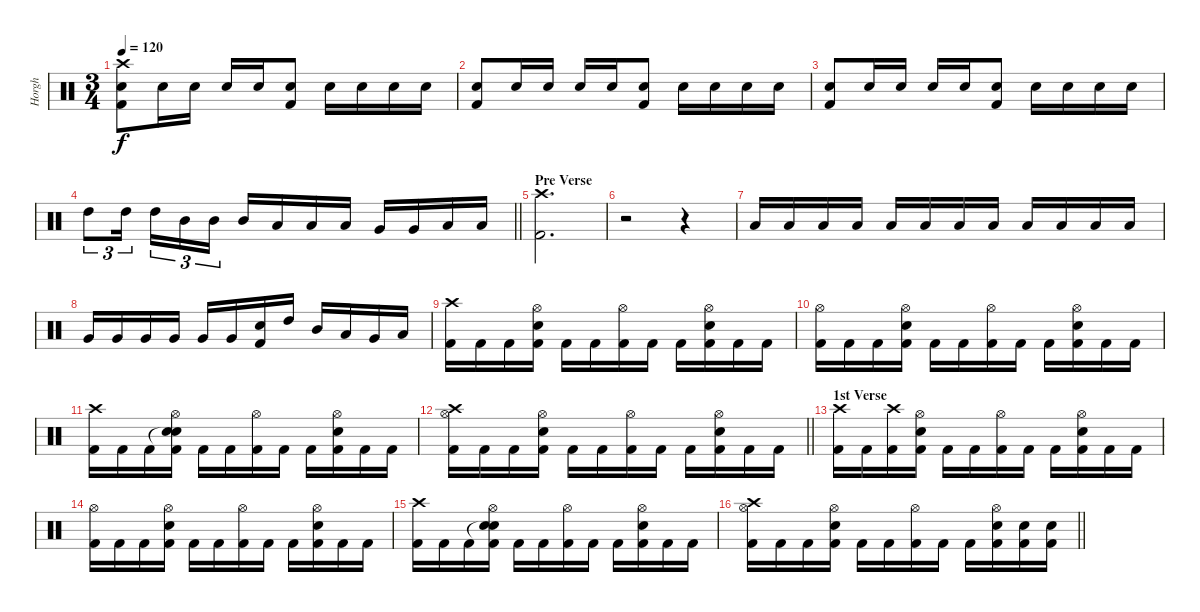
\track ("Horgh" "Horgh") {instrument percussion}
\staff {score}
\articulation defaults
\ts (3 4)
\tempo 120
\clef neutral
\ks c
("Crash high (hit)" "Snare (hit) 2" "Kick (hit) 2").8{dy f} "Snare (hit) 2".16 "Snare (hit) 2".16 "Snare (hit) 2".16 "Snare (hit) 2".16 ("Snare (hit) 2" "Kick (hit) 2").8 "Snare (hit) 2".16 "Snare (hit) 2".16 "Snare (hit) 2".16 "Snare (hit) 2".16 |
("Snare (hit) 2" "Kick (hit) 2").8 "Snare (hit) 2".16 "Snare (hit) 2".16 "Snare (hit) 2".16 "Snare (hit) 2".16 ("Snare (hit) 2" "Kick (hit) 2").8 "Snare (hit) 2".16 "Snare (hit) 2".16 "Snare (hit) 2".16 "Snare (hit) 2".16 |
("Snare (hit) 2" "Kick (hit) 2").8 "Snare (hit) 2".16 "Snare (hit) 2".16 "Snare (hit) 2".16 "Snare (hit) 2".16 ("Snare (hit) 2" "Kick (hit) 2").8 "Snare (hit) 2".16 "Snare (hit) 2".16 "Snare (hit) 2".16 "Snare (hit) 2".16 |
\barLineRight lightlight "High Tom (hit)".8{tu (3 2)} "High Tom (hit)".16{tu (3 2) beam splitsecondary} "High Tom (hit)".16{tu (3 2)} "Mid Tom (hit)".16{tu (3 2)} "Mid Tom (hit)".16{tu (3 2)} "Mid Tom (hit)".16 "Low Tom (hit)".16 "Low Tom (hit)".16 "Low Tom (hit)".16 "Very Low Tom (hit)".16 "Very Low Tom (hit)".16 "Low Floor Tom (hit)".16 "Low Floor Tom (hit)".16
|
\section ("" "Pre Verse")
("Crash high (hit)" "Kick (hit) 2").2{d} |
r.2 r.4 |
"Low Tom (hit)".16 "Low Tom (hit)".16 "Low Tom (hit)".16 "Low Tom (hit)".16 "Low Tom (hit)".16 "Low Tom (hit)".16 "Low Tom (hit)".16 "Low Tom (hit)".16 "Low Tom (hit)".16 "Low Tom (hit)".16 "Low Tom (hit)".16 "Low Tom (hit)".16 |
"Very Low Tom (hit)".16 "Very Low Tom (hit)".16 "Very Low Tom (hit)".16 "Very Low Tom (hit)".16 "Very Low Tom (hit)".16 "Very Low Tom (hit)".16 ("Snare (hit) 2" "Kick (hit) 2").16 "High Tom (hit)".16 "Mid Tom (hit)".16 "Low Tom (hit)".16 "Very Low Tom (hit)".16 "Low Floor Tom (hit)".16 |
("Crash high (hit)" "Kick (hit) 2").16 "Kick (hit) 2".16 "Kick (hit) 2".16 ("Snare (hit) 2" "Hi-Hat (open)" "Kick (hit) 2").16 "Kick (hit) 2".16 "Kick (hit) 2".16 ("Hi-Hat (open)" "Kick (hit) 2").16 "Kick (hit) 2".16 "Kick (hit) 2".16 ("Snare (hit) 2" "Hi-Hat (open)" "Kick (hit) 2").16 "Kick (hit) 2".16 "Kick (hit) 2".16 |
("Hi-Hat (open)" "Kick (hit) 2").16 "Kick (hit) 2".16 "Kick (hit) 2".16 ("Snare (hit) 2" "Hi-Hat (open)" "Kick (hit) 2").16 "Kick (hit) 2".16 "Kick (hit) 2".16 ("Hi-Hat (open)" "Kick (hit) 2").16 "Kick (hit) 2".16 "Kick (hit) 2".16 ("Snare (hit) 2" "Hi-Hat (open)" "Kick (hit) 2").16 "Kick (hit) 2".16 "Kick (hit) 2".16 |
("Crash high (hit)" "Kick (hit) 2").16 "Kick (hit) 2".16 "Kick (hit) 2".16 ("Snare (hit)"{t} "Snare (hit) 2" "Hi-Hat (open)" "Kick (hit) 2").16 "Kick (hit) 2".16 "Kick (hit) 2".16 ("Hi-Hat (open)" "Kick (hit) 2").16 "Kick (hit) 2".16 "Kick (hit) 2".16 ("Snare (hit) 2" "Hi-Hat (open)" "Kick (hit) 2").16 "Kick (hit) 2".16 "Kick (hit) 2".16 |
\barLineRight lightlight
("Crash high (hit)" "Hi-Hat (open)" "Kick (hit) 2").16 "Kick (hit) 2".16 "Kick (hit) 2".16 ("Snare (hit) 2" "Hi-Hat (open)" "Kick (hit) 2").16 "Kick (hit) 2".16 "Kick (hit) 2".16 ("Hi-Hat (open)" "Kick (hit) 2").16 "Kick (hit) 2".16 "Kick (hit) 2".16 ("Snare (hit) 2" "Hi-Hat (open)" "Kick (hit) 2").16 "Kick (hit) 2".16 "Kick (hit) 2".16 |
\section ("" "1st Verse")
("Crash high (hit)" "Kick (hit) 2").16 "Kick (hit) 2".16 ("Crash high (hit)" "Kick (hit) 2").16 ("Snare (hit) 2" "Hi-Hat (open)" "Kick (hit) 2").16 "Kick (hit) 2".16 "Kick (hit) 2".16 ("Hi-Hat (open)" "Kick (hit) 2").16 "Kick (hit) 2".16 "Kick (hit) 2".16 ("Snare (hit) 2" "Hi-Hat (open)" "Kick (hit) 2").16 "Kick (hit) 2".16 "Kick (hit) 2".16 |
("Hi-Hat (open)" "Kick (hit) 2").16 "Kick (hit) 2".16 "Kick (hit) 2".16 ("Snare (hit) 2" "Hi-Hat (open)" "Kick (hit) 2").16 "Kick (hit) 2".16 "Kick (hit) 2".16 ("Hi-Hat (open)" "Kick (hit) 2").16 "Kick (hit) 2".16 "Kick (hit) 2".16 ("Snare (hit) 2" "Hi-Hat (open)" "Kick (hit) 2").16 "Kick (hit) 2".16 "Kick (hit) 2".16 |
("Crash high (hit)" "Kick (hit) 2").16 "Kick (hit) 2".16 "Kick (hit) 2".16 ("Snare (hit)"{t} "Snare (hit) 2" "Hi-Hat (open)" "Kick (hit) 2").16 "Kick (hit) 2".16 "Kick (hit) 2".16 ("Hi-Hat (open)" "Kick (hit) 2").16 "Kick (hit) 2".16 "Kick (hit) 2".16 ("Snare (hit) 2" "Hi-Hat (open)" "Kick (hit) 2").16 "Kick (hit) 2".16 "Kick (hit) 2".16 |
\barLineRight lightlight
("Crash high (hit)" "Hi-Hat (open)" "Kick (hit) 2").16 "Kick (hit) 2".16 "Kick (hit) 2".16 ("Snare (hit) 2" "Hi-Hat (open)" "Kick (hit) 2").16 "Kick (hit) 2".16 "Kick (hit) 2".16 ("Hi-Hat (open)" "Kick (hit) 2").16 "Kick (hit) 2".16 "Kick (hit) 2".16 ("Snare (hit) 2" "Hi-Hat (open)" "Kick (hit) 2").16 ("Snare (hit) 2" "Kick (hit) 2").16 ("Snare (hit) 2" "Kick (hit) 2").16
